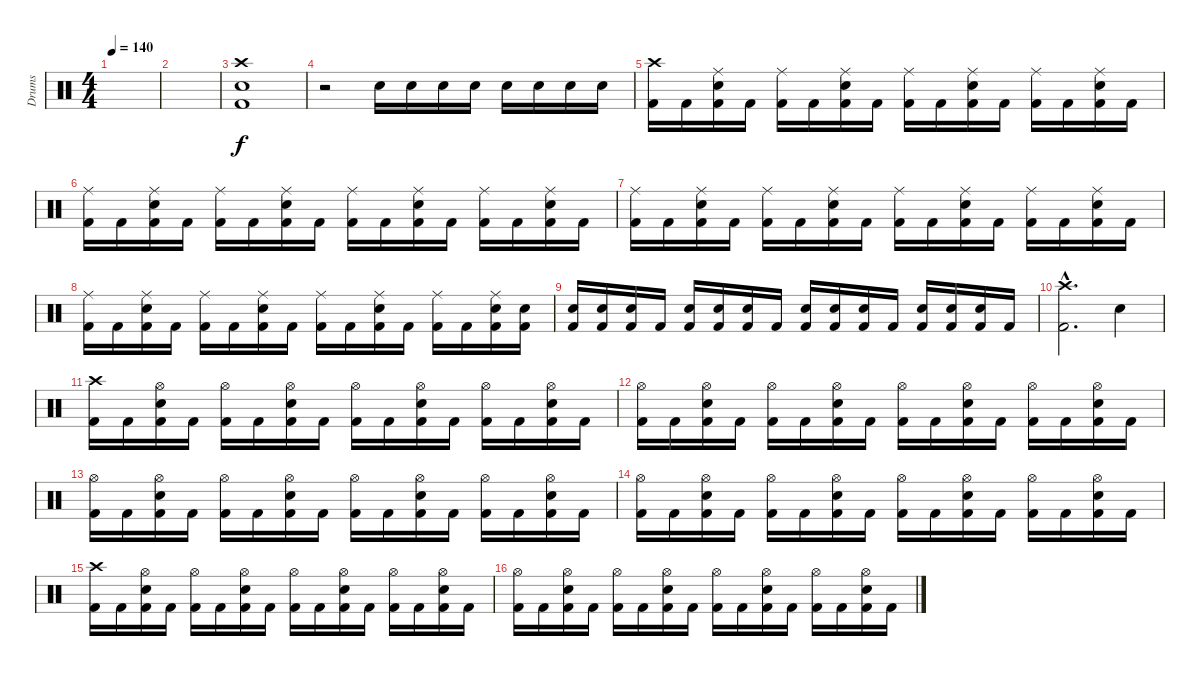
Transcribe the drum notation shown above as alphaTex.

\track ("Drums" "Drums") {instrument percussion}
\staff {score}
\articulation defaults
\ts (4 4)
\tempo 140
\clef neutral
\ks c
|
|
("Crash high (hit)" "Electric Snare (hit)" "Kick (hit) 2").1 |
r.2 "Electric Snare (hit)".16 "Electric Snare (hit)".16 "Electric Snare (hit)".16 "Electric Snare (hit)".16 "Electric Snare (hit)".16 "Electric Snare (hit)".16 "Electric Snare (hit)".16 "Electric Snare (hit)".16 |
("Crash high (hit)" "Kick (hit) 2").16 "Kick (hit) 2".16 ("Ride (middle)" "Electric Snare (hit)" "Kick (hit) 2").16 "Kick (hit) 2".16 ("Ride (middle)" "Kick (hit) 2").16 "Kick (hit) 2".16 ("Ride (middle)" "Electric Snare (hit)" "Kick (hit) 2").16 "Kick (hit) 2".16 ("Ride (middle)" "Kick (hit) 2").16 "Kick (hit) 2".16 ("Ride (middle)" "Electric Snare (hit)" "Kick (hit) 2").16 "Kick (hit) 2".16 ("Ride (middle)" "Kick (hit) 2").16 "Kick (hit) 2".16 ("Ride (middle)" "Electric Snare (hit)" "Kick (hit) 2").16 "Kick (hit) 2".16 |
("Ride (middle)" "Kick (hit) 2").16 "Kick (hit) 2".16 ("Ride (middle)" "Electric Snare (hit)" "Kick (hit) 2").16 "Kick (hit) 2".16 ("Ride (middle)" "Kick (hit) 2").16 "Kick (hit) 2".16 ("Ride (middle)" "Electric Snare (hit)" "Kick (hit) 2").16 "Kick (hit) 2".16 ("Ride (middle)" "Kick (hit) 2").16 "Kick (hit) 2".16 ("Ride (middle)" "Electric Snare (hit)" "Kick (hit) 2").16 "Kick (hit) 2".16 ("Ride (middle)" "Kick (hit) 2").16 "Kick (hit) 2".16 ("Ride (middle)" "Electric Snare (hit)" "Kick (hit) 2").16 "Kick (hit) 2".16 |
("Ride (middle)" "Kick (hit) 2").16 "Kick (hit) 2".16 ("Ride (middle)" "Electric Snare (hit)" "Kick (hit) 2").16 "Kick (hit) 2".16 ("Ride (middle)" "Kick (hit) 2").16 "Kick (hit) 2".16 ("Ride (middle)" "Electric Snare (hit)" "Kick (hit) 2").16 "Kick (hit) 2".16 ("Ride (middle)" "Kick (hit) 2").16 "Kick (hit) 2".16 ("Ride (middle)" "Electric Snare (hit)" "Kick (hit) 2").16 "Kick (hit) 2".16 ("Ride (middle)" "Kick (hit) 2").16 "Kick (hit) 2".16 ("Ride (middle)" "Electric Snare (hit)" "Kick (hit) 2").16 "Kick (hit) 2".16 |
("Ride (middle)" "Kick (hit) 2").16 "Kick (hit) 2".16 ("Ride (middle)" "Electric Snare (hit)" "Kick (hit) 2").16 "Kick (hit) 2".16 ("Ride (middle)" "Kick (hit) 2").16 "Kick (hit) 2".16 ("Ride (middle)" "Electric Snare (hit)" "Kick (hit) 2").16 "Kick (hit) 2".16 ("Ride (middle)" "Kick (hit) 2").16 "Kick (hit) 2".16 ("Ride (middle)" "Electric Snare (hit)" "Kick (hit) 2").16 "Kick (hit) 2".16 ("Ride (middle)" "Kick (hit) 2").16 "Kick (hit) 2".16 ("Ride (middle)" "Electric Snare (hit)" "Kick (hit) 2").16 ("Electric Snare (hit)" "Kick (hit) 2").16 |
("Electric Snare (hit)" "Kick (hit) 2").16 ("Electric Snare (hit)" "Kick (hit) 2").16 ("Electric Snare (hit)" "Kick (hit) 2").16 "Kick (hit) 2".16 ("Electric Snare (hit)" "Kick (hit) 2").16 ("Electric Snare (hit)" "Kick (hit) 2").16 ("Electric Snare (hit)" "Kick (hit) 2").16 "Kick (hit) 2".16 ("Electric Snare (hit)" "Kick (hit) 2").16 ("Electric Snare (hit)" "Kick (hit) 2").16 ("Electric Snare (hit)" "Kick (hit) 2").16 "Kick (hit) 2".16 ("Electric Snare (hit)" "Kick (hit) 2").16 ("Electric Snare (hit)" "Kick (hit) 2").16 ("Electric Snare (hit)" "Kick (hit) 2").16 "Kick (hit) 2".16 |
("Crash high (hit)"{hac} "Kick (hit) 2"{hac}).2{d} "Electric Snare (hit)".4 |
("Crash high (hit)" "Kick (hit) 2").16 "Kick (hit) 2".16 ("Hi-Hat (open)" "Electric Snare (hit)" "Kick (hit) 2").16 "Kick (hit) 2".16 ("Hi-Hat (open)" "Kick (hit) 2").16 "Kick (hit) 2".16 ("Hi-Hat (open)" "Electric Snare (hit)" "Kick (hit) 2").16 "Kick (hit) 2".16 ("Hi-Hat (open)" "Kick (hit) 2").16 "Kick (hit) 2".16 ("Hi-Hat (open)" "Electric Snare (hit)" "Kick (hit) 2").16 "Kick (hit) 2".16 ("Hi-Hat (open)" "Kick (hit) 2").16 "Kick (hit) 2".16 ("Hi-Hat (open)" "Electric Snare (hit)" "Kick (hit) 2").16 "Kick (hit) 2".16 |
("Hi-Hat (open)" "Kick (hit) 2").16 "Kick (hit) 2".16 ("Hi-Hat (open)" "Electric Snare (hit)" "Kick (hit) 2").16 "Kick (hit) 2".16 ("Hi-Hat (open)" "Kick (hit) 2").16 "Kick (hit) 2".16 ("Hi-Hat (open)" "Electric Snare (hit)" "Kick (hit) 2").16 "Kick (hit) 2".16 ("Hi-Hat (open)" "Kick (hit) 2").16 "Kick (hit) 2".16 ("Hi-Hat (open)" "Electric Snare (hit)" "Kick (hit) 2").16 "Kick (hit) 2".16 ("Hi-Hat (open)" "Kick (hit) 2").16 "Kick (hit) 2".16 ("Hi-Hat (open)" "Electric Snare (hit)" "Kick (hit) 2").16 "Kick (hit) 2".16 |
("Hi-Hat (open)" "Kick (hit) 2").16 "Kick (hit) 2".16 ("Hi-Hat (open)" "Electric Snare (hit)" "Kick (hit) 2").16 "Kick (hit) 2".16 ("Hi-Hat (open)" "Kick (hit) 2").16 "Kick (hit) 2".16 ("Hi-Hat (open)" "Electric Snare (hit)" "Kick (hit) 2").16 "Kick (hit) 2".16 ("Hi-Hat (open)" "Kick (hit) 2").16 "Kick (hit) 2".16 ("Hi-Hat (open)" "Electric Snare (hit)" "Kick (hit) 2").16 "Kick (hit) 2".16 ("Hi-Hat (open)" "Kick (hit) 2").16 "Kick (hit) 2".16 ("Hi-Hat (open)" "Electric Snare (hit)" "Kick (hit) 2").16 "Kick (hit) 2".16 |
("Hi-Hat (open)" "Kick (hit) 2").16 "Kick (hit) 2".16 ("Hi-Hat (open)" "Electric Snare (hit)" "Kick (hit) 2").16 "Kick (hit) 2".16 ("Hi-Hat (open)" "Kick (hit) 2").16 "Kick (hit) 2".16 ("Hi-Hat (open)" "Electric Snare (hit)" "Kick (hit) 2").16 "Kick (hit) 2".16 ("Hi-Hat (open)" "Kick (hit) 2").16 "Kick (hit) 2".16 ("Hi-Hat (open)" "Electric Snare (hit)" "Kick (hit) 2").16 "Kick (hit) 2".16 ("Hi-Hat (open)" "Kick (hit) 2").16 "Kick (hit) 2".16 ("Hi-Hat (open)" "Electric Snare (hit)" "Kick (hit) 2").16 "Kick (hit) 2".16 |
("Crash high (hit)" "Kick (hit) 2").16 "Kick (hit) 2".16 ("Hi-Hat (open)" "Electric Snare (hit)" "Kick (hit) 2").16 "Kick (hit) 2".16 ("Hi-Hat (open)" "Kick (hit) 2").16 "Kick (hit) 2".16 ("Hi-Hat (open)" "Electric Snare (hit)" "Kick (hit) 2").16 "Kick (hit) 2".16 ("Hi-Hat (open)" "Kick (hit) 2").16 "Kick (hit) 2".16 ("Hi-Hat (open)" "Electric Snare (hit)" "Kick (hit) 2").16 "Kick (hit) 2".16 ("Hi-Hat (open)" "Kick (hit) 2").16 "Kick (hit) 2".16 ("Hi-Hat (open)" "Electric Snare (hit)" "Kick (hit) 2").16 "Kick (hit) 2".16 |
("Hi-Hat (open)" "Kick (hit) 2").16 "Kick (hit) 2".16 ("Hi-Hat (open)" "Electric Snare (hit)" "Kick (hit) 2").16 "Kick (hit) 2".16 ("Hi-Hat (open)" "Kick (hit) 2").16 "Kick (hit) 2".16 ("Hi-Hat (open)" "Electric Snare (hit)" "Kick (hit) 2").16 "Kick (hit) 2".16 ("Hi-Hat (open)" "Kick (hit) 2").16 "Kick (hit) 2".16 ("Hi-Hat (open)" "Electric Snare (hit)" "Kick (hit) 2").16 "Kick (hit) 2".16 ("Hi-Hat (open)" "Kick (hit) 2").16 "Kick (hit) 2".16 ("Hi-Hat (open)" "Electric Snare (hit)" "Kick (hit) 2").16 "Kick (hit) 2".16
